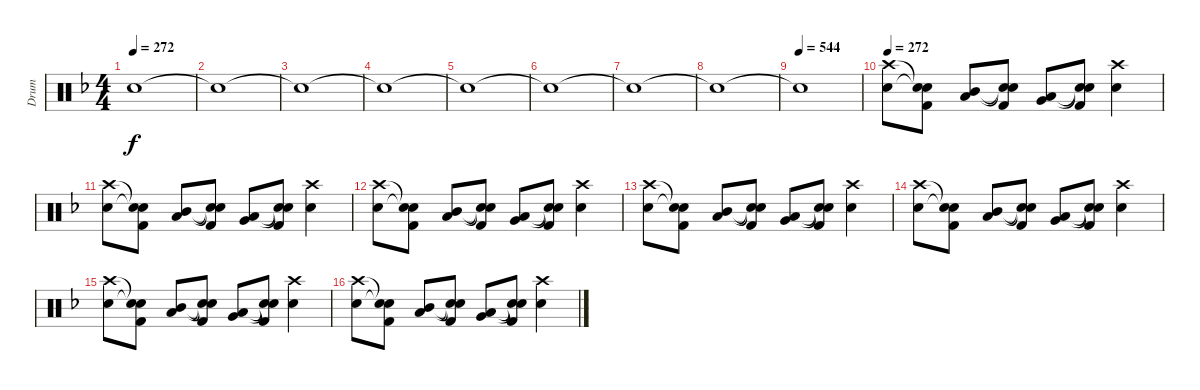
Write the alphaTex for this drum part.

\track ("Drum" "Drum") {instrument percussion}
\staff {score}
\articulation defaults
\ts (4 4)
\tempo 272
\clef neutral
\ks f "Snare (hit)"{t}.1{dy f}
|
"Snare (hit)"{t}.1 |
"Snare (hit)"{t}.1 |
"Snare (hit)"{t}.1 |
"Snare (hit)"{t}.1 |
"Snare (hit)"{t}.1 |
"Snare (hit)"{t}.1 |
"Snare (hit)"{t}.1 |
\tempo (544)
"Snare (hit)"{t}.1 |
\tempo 272
("Crash high (hit)" "Electric Snare (hit)").8{volume 4} ("Snare (hit)"{t} "Snare (hit)"{t} "Kick (hit) 2").8 ("Mid Tom (hit)" "Low Tom (hit)").8 ("Snare (hit)"{t} "Snare (hit)"{t} "Kick (hit) 2").8 ("Low Tom (hit)" "Very Low Tom (hit)").8{volume 5} ("Snare (hit)"{t} "Snare (hit)"{t} "Kick (hit) 2").8 ("Crash high (hit)" "Electric Snare (hit)").4{volume 6} |
("Crash high (hit)" "Electric Snare (hit)").8{volume 7} ("Snare (hit)"{t} "Snare (hit)"{t} "Kick (hit) 2").8 ("Mid Tom (hit)" "Low Tom (hit)").8 ("Snare (hit)"{t} "Snare (hit)"{t} "Kick (hit) 2").8 ("Low Tom (hit)" "Very Low Tom (hit)").8{volume 8} ("Snare (hit)"{t} "Snare (hit)"{t} "Kick (hit) 2").8 ("Crash high (hit)" "Electric Snare (hit)").4{volume 9} |
("Crash high (hit)" "Electric Snare (hit)").8{volume 10} ("Snare (hit)"{t} "Snare (hit)"{t} "Kick (hit) 2").8 ("Mid Tom (hit)" "Low Tom (hit)").8 ("Snare (hit)"{t} "Snare (hit)"{t} "Kick (hit) 2").8 ("Low Tom (hit)" "Very Low Tom (hit)").8{volume 11} ("Snare (hit)"{t} "Snare (hit)"{t} "Kick (hit) 2").8 ("Crash high (hit)" "Electric Snare (hit)").4{volume 12} |
("Crash high (hit)" "Electric Snare (hit)").8{volume 13} ("Snare (hit)"{t} "Snare (hit)"{t} "Kick (hit) 2").8 ("Mid Tom (hit)" "Low Tom (hit)").8 ("Snare (hit)"{t} "Snare (hit)"{t} "Kick (hit) 2").8 ("Low Tom (hit)" "Very Low Tom (hit)").8 ("Snare (hit)"{t} "Snare (hit)"{t} "Kick (hit) 2").8 ("Crash high (hit)" "Electric Snare (hit)").4 |
("Crash high (hit)" "Electric Snare (hit)").8 ("Snare (hit)"{t} "Snare (hit)"{t} "Kick (hit) 2").8 ("Mid Tom (hit)" "Low Tom (hit)").8 ("Snare (hit)"{t} "Snare (hit)"{t} "Kick (hit) 2").8 ("Low Tom (hit)" "Very Low Tom (hit)").8 ("Snare (hit)"{t} "Snare (hit)"{t} "Kick (hit) 2").8 ("Crash high (hit)" "Electric Snare (hit)").4 |
("Crash high (hit)" "Electric Snare (hit)").8 ("Snare (hit)"{t} "Snare (hit)"{t} "Kick (hit) 2").8 ("Mid Tom (hit)" "Low Tom (hit)").8 ("Snare (hit)"{t} "Snare (hit)"{t} "Kick (hit) 2").8 ("Low Tom (hit)" "Very Low Tom (hit)").8 ("Snare (hit)"{t} "Snare (hit)"{t} "Kick (hit) 2").8 ("Crash high (hit)" "Electric Snare (hit)").4 |
("Crash high (hit)" "Electric Snare (hit)").8 ("Snare (hit)"{t} "Snare (hit)"{t} "Kick (hit) 2").8 ("Mid Tom (hit)" "Low Tom (hit)").8 ("Snare (hit)"{t} "Snare (hit)"{t} "Kick (hit) 2").8 ("Low Tom (hit)" "Very Low Tom (hit)").8 ("Snare (hit)"{t} "Snare (hit)"{t} "Kick (hit) 2").8 ("Crash high (hit)" "Electric Snare (hit)").4
